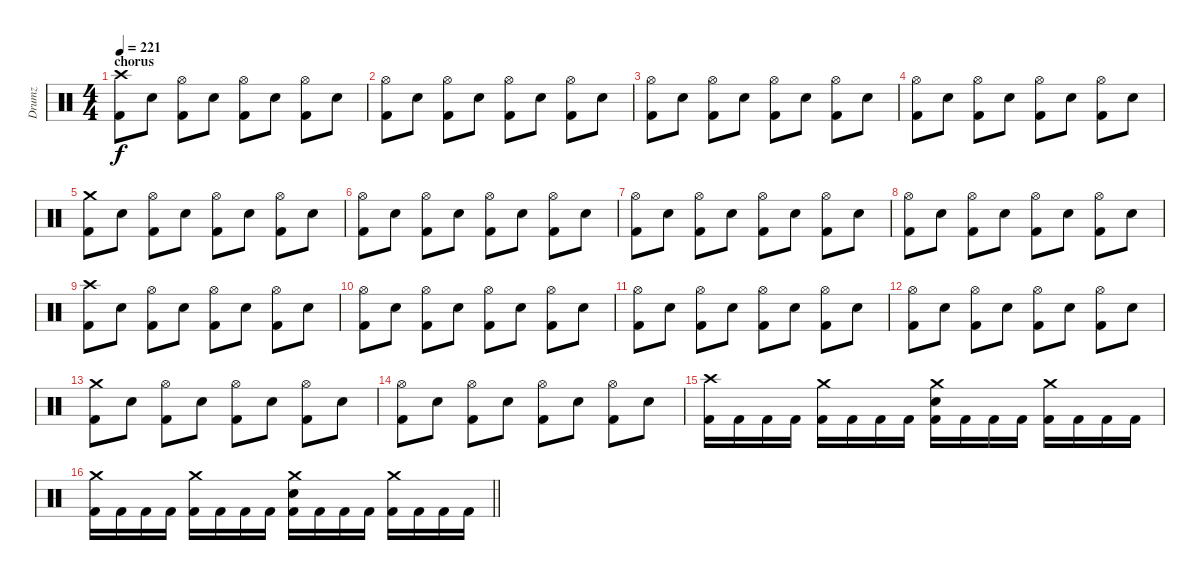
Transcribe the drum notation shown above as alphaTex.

\track ("Drumz" "Drumz") {instrument percussion}
\staff {score}
\articulation defaults
\ts (4 4)
\section ("" "chorus")
\tempo 221
\clef neutral
\ks c
("Crash high (hit)" "Kick (hit) 2").8{dy f} "Electric Snare (hit)".8 ("Hi-Hat (open)" "Kick (hit) 2").8 "Electric Snare (hit)".8 ("Hi-Hat (open)" "Kick (hit) 2").8 "Electric Snare (hit)".8 ("Hi-Hat (open)" "Kick (hit) 2").8 "Electric Snare (hit)".8 |
("Hi-Hat (open)" "Kick (hit) 2").8 "Electric Snare (hit)".8 ("Hi-Hat (open)" "Kick (hit) 2").8 "Electric Snare (hit)".8 ("Hi-Hat (open)" "Kick (hit) 2").8 "Electric Snare (hit)".8 ("Hi-Hat (open)" "Kick (hit) 2").8 "Electric Snare (hit)".8 |
("Hi-Hat (open)" "Kick (hit) 2").8 "Electric Snare (hit)".8 ("Hi-Hat (open)" "Kick (hit) 2").8 "Electric Snare (hit)".8 ("Hi-Hat (open)" "Kick (hit) 2").8 "Electric Snare (hit)".8 ("Hi-Hat (open)" "Kick (hit) 2").8 "Electric Snare (hit)".8 |
("Hi-Hat (open)" "Kick (hit) 2").8 "Electric Snare (hit)".8 ("Hi-Hat (open)" "Kick (hit) 2").8 "Electric Snare (hit)".8 ("Hi-Hat (open)" "Kick (hit) 2").8 "Electric Snare (hit)".8 ("Hi-Hat (open)" "Kick (hit) 2").8 "Electric Snare (hit)".8 |
("Crash medium (hit)" "Kick (hit) 2").8 "Electric Snare (hit)".8 ("Hi-Hat (open)" "Kick (hit) 2").8 "Electric Snare (hit)".8 ("Hi-Hat (open)" "Kick (hit) 2").8 "Electric Snare (hit)".8 ("Hi-Hat (open)" "Kick (hit) 2").8 "Electric Snare (hit)".8 |
("Hi-Hat (open)" "Kick (hit) 2").8 "Electric Snare (hit)".8 ("Hi-Hat (open)" "Kick (hit) 2").8 "Electric Snare (hit)".8 ("Hi-Hat (open)" "Kick (hit) 2").8 "Electric Snare (hit)".8 ("Hi-Hat (open)" "Kick (hit) 2").8 "Electric Snare (hit)".8 |
("Hi-Hat (open)" "Kick (hit) 2").8 "Electric Snare (hit)".8 ("Hi-Hat (open)" "Kick (hit) 2").8 "Electric Snare (hit)".8 ("Hi-Hat (open)" "Kick (hit) 2").8 "Electric Snare (hit)".8 ("Hi-Hat (open)" "Kick (hit) 2").8 "Electric Snare (hit)".8 |
("Hi-Hat (open)" "Kick (hit) 2").8 "Electric Snare (hit)".8 ("Hi-Hat (open)" "Kick (hit) 2").8 "Electric Snare (hit)".8 ("Hi-Hat (open)" "Kick (hit) 2").8 "Electric Snare (hit)".8 ("Hi-Hat (open)" "Kick (hit) 2").8 "Electric Snare (hit)".8 |
("Crash high (hit)" "Kick (hit) 2").8 "Electric Snare (hit)".8 ("Hi-Hat (open)" "Kick (hit) 2").8 "Electric Snare (hit)".8 ("Hi-Hat (open)" "Kick (hit) 2").8 "Electric Snare (hit)".8 ("Hi-Hat (open)" "Kick (hit) 2").8 "Electric Snare (hit)".8 |
("Hi-Hat (open)" "Kick (hit) 2").8 "Electric Snare (hit)".8 ("Hi-Hat (open)" "Kick (hit) 2").8 "Electric Snare (hit)".8 ("Hi-Hat (open)" "Kick (hit) 2").8 "Electric Snare (hit)".8 ("Hi-Hat (open)" "Kick (hit) 2").8 "Electric Snare (hit)".8 |
("Hi-Hat (open)" "Kick (hit) 2").8 "Electric Snare (hit)".8 ("Hi-Hat (open)" "Kick (hit) 2").8 "Electric Snare (hit)".8 ("Hi-Hat (open)" "Kick (hit) 2").8 "Electric Snare (hit)".8 ("Hi-Hat (open)" "Kick (hit) 2").8 "Electric Snare (hit)".8 |
("Hi-Hat (open)" "Kick (hit) 2").8 "Electric Snare (hit)".8 ("Hi-Hat (open)" "Kick (hit) 2").8 "Electric Snare (hit)".8 ("Hi-Hat (open)" "Kick (hit) 2").8 "Electric Snare (hit)".8 ("Hi-Hat (open)" "Kick (hit) 2").8 "Electric Snare (hit)".8 |
("Crash medium (hit)" "Kick (hit) 2").8 "Electric Snare (hit)".8 ("Hi-Hat (open)" "Kick (hit) 2").8 "Electric Snare (hit)".8 ("Hi-Hat (open)" "Kick (hit) 2").8 "Electric Snare (hit)".8 ("Hi-Hat (open)" "Kick (hit) 2").8 "Electric Snare (hit)".8 |
("Hi-Hat (open)" "Kick (hit) 2").8 "Electric Snare (hit)".8 ("Hi-Hat (open)" "Kick (hit) 2").8 "Electric Snare (hit)".8 ("Hi-Hat (open)" "Kick (hit) 2").8 "Electric Snare (hit)".8 ("Hi-Hat (open)" "Kick (hit) 2").8 "Electric Snare (hit)".8 |
("Crash high (hit)" "Kick (hit) 2").16 "Kick (hit) 2".16 "Kick (hit) 2".16 "Kick (hit) 2".16 ("Crash medium (hit)" "Kick (hit) 2").16 "Kick (hit) 2".16 "Kick (hit) 2".16 "Kick (hit) 2".16 ("Crash medium (hit)" "Electric Snare (hit)" "Kick (hit) 2").16 "Kick (hit) 2".16 "Kick (hit) 2".16 "Kick (hit) 2".16 ("Crash medium (hit)" "Kick (hit) 2").16 "Kick (hit) 2".16 "Kick (hit) 2".16 "Kick (hit) 2".16 |
\barLineRight lightlight
("Crash medium (hit)" "Kick (hit) 2").16 "Kick (hit) 2".16 "Kick (hit) 2".16 "Kick (hit) 2".16 ("Crash medium (hit)" "Kick (hit) 2").16 "Kick (hit) 2".16 "Kick (hit) 2".16 "Kick (hit) 2".16 ("Crash medium (hit)" "Electric Snare (hit)" "Kick (hit) 2").16 "Kick (hit) 2".16 "Kick (hit) 2".16 "Kick (hit) 2".16 ("Crash medium (hit)" "Kick (hit) 2").16 "Kick (hit) 2".16 "Kick (hit) 2".16 "Kick (hit) 2".16
